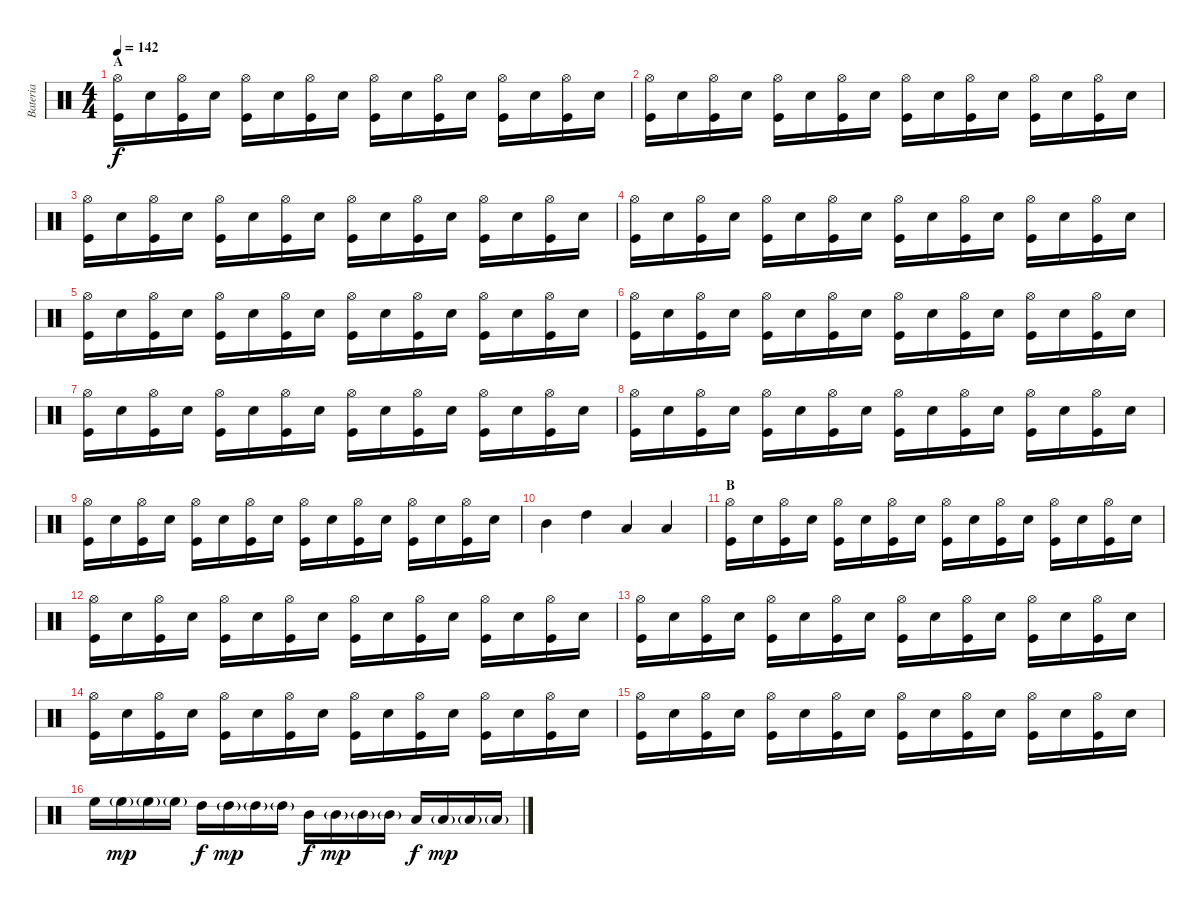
\track ("Bateria" "Bateria") {instrument percussion}
\staff {score}
\articulation defaults
\ts (4 4)
\section ("" "A")
\tempo 142
\clef neutral
\ks c
("Hi-Hat (open)" "Kick (hit)").16{dy f} "Snare (hit) 2".16 ("Hi-Hat (open)" "Kick (hit)").16 "Snare (hit) 2".16 ("Hi-Hat (open)" "Kick (hit)").16 "Snare (hit) 2".16 ("Hi-Hat (open)" "Kick (hit)").16 "Snare (hit) 2".16 ("Hi-Hat (open)" "Kick (hit)").16 "Snare (hit) 2".16 ("Hi-Hat (open)" "Kick (hit)").16 "Snare (hit) 2".16 ("Hi-Hat (open)" "Kick (hit)").16 "Snare (hit) 2".16 ("Hi-Hat (open)" "Kick (hit)").16 "Snare (hit) 2".16 |
("Hi-Hat (open)" "Kick (hit)").16 "Snare (hit) 2".16 ("Hi-Hat (open)" "Kick (hit)").16 "Snare (hit) 2".16 ("Hi-Hat (open)" "Kick (hit)").16 "Snare (hit) 2".16 ("Hi-Hat (open)" "Kick (hit)").16 "Snare (hit) 2".16 ("Hi-Hat (open)" "Kick (hit)").16 "Snare (hit) 2".16 ("Hi-Hat (open)" "Kick (hit)").16 "Snare (hit) 2".16 ("Hi-Hat (open)" "Kick (hit)").16 "Snare (hit) 2".16 ("Hi-Hat (open)" "Kick (hit)").16 "Snare (hit) 2".16 |
("Hi-Hat (open)" "Kick (hit)").16 "Snare (hit) 2".16 ("Hi-Hat (open)" "Kick (hit)").16 "Snare (hit) 2".16 ("Hi-Hat (open)" "Kick (hit)").16 "Snare (hit) 2".16 ("Hi-Hat (open)" "Kick (hit)").16 "Snare (hit) 2".16 ("Hi-Hat (open)" "Kick (hit)").16 "Snare (hit) 2".16 ("Hi-Hat (open)" "Kick (hit)").16 "Snare (hit) 2".16 ("Hi-Hat (open)" "Kick (hit)").16 "Snare (hit) 2".16 ("Hi-Hat (open)" "Kick (hit)").16 "Snare (hit) 2".16 |
("Hi-Hat (open)" "Kick (hit)").16 "Snare (hit) 2".16 ("Hi-Hat (open)" "Kick (hit)").16 "Snare (hit) 2".16 ("Hi-Hat (open)" "Kick (hit)").16 "Snare (hit) 2".16 ("Hi-Hat (open)" "Kick (hit)").16 "Snare (hit) 2".16 ("Hi-Hat (open)" "Kick (hit)").16 "Snare (hit) 2".16 ("Hi-Hat (open)" "Kick (hit)").16 "Snare (hit) 2".16 ("Hi-Hat (open)" "Kick (hit)").16 "Snare (hit) 2".16 ("Hi-Hat (open)" "Kick (hit)").16 "Snare (hit) 2".16 |
("Hi-Hat (open)" "Kick (hit)").16 "Snare (hit) 2".16 ("Hi-Hat (open)" "Kick (hit)").16 "Snare (hit) 2".16 ("Hi-Hat (open)" "Kick (hit)").16 "Snare (hit) 2".16 ("Hi-Hat (open)" "Kick (hit)").16 "Snare (hit) 2".16 ("Hi-Hat (open)" "Kick (hit)").16 "Snare (hit) 2".16 ("Hi-Hat (open)" "Kick (hit)").16 "Snare (hit) 2".16 ("Hi-Hat (open)" "Kick (hit)").16 "Snare (hit) 2".16 ("Hi-Hat (open)" "Kick (hit)").16 "Snare (hit) 2".16 |
("Hi-Hat (open)" "Kick (hit)").16 "Snare (hit) 2".16 ("Hi-Hat (open)" "Kick (hit)").16 "Snare (hit) 2".16 ("Hi-Hat (open)" "Kick (hit)").16 "Snare (hit) 2".16 ("Hi-Hat (open)" "Kick (hit)").16 "Snare (hit) 2".16 ("Hi-Hat (open)" "Kick (hit)").16 "Snare (hit) 2".16 ("Hi-Hat (open)" "Kick (hit)").16 "Snare (hit) 2".16 ("Hi-Hat (open)" "Kick (hit)").16 "Snare (hit) 2".16 ("Hi-Hat (open)" "Kick (hit)").16 "Snare (hit) 2".16 |
("Hi-Hat (open)" "Kick (hit)").16 "Snare (hit) 2".16 ("Hi-Hat (open)" "Kick (hit)").16 "Snare (hit) 2".16 ("Hi-Hat (open)" "Kick (hit)").16 "Snare (hit) 2".16 ("Hi-Hat (open)" "Kick (hit)").16 "Snare (hit) 2".16 ("Hi-Hat (open)" "Kick (hit)").16 "Snare (hit) 2".16 ("Hi-Hat (open)" "Kick (hit)").16 "Snare (hit) 2".16 ("Hi-Hat (open)" "Kick (hit)").16 "Snare (hit) 2".16 ("Hi-Hat (open)" "Kick (hit)").16 "Snare (hit) 2".16 |
("Hi-Hat (open)" "Kick (hit)").16 "Snare (hit) 2".16 ("Hi-Hat (open)" "Kick (hit)").16 "Snare (hit) 2".16 ("Hi-Hat (open)" "Kick (hit)").16 "Snare (hit) 2".16 ("Hi-Hat (open)" "Kick (hit)").16 "Snare (hit) 2".16 ("Hi-Hat (open)" "Kick (hit)").16 "Snare (hit) 2".16 ("Hi-Hat (open)" "Kick (hit)").16 "Snare (hit) 2".16 ("Hi-Hat (open)" "Kick (hit)").16 "Snare (hit) 2".16 ("Hi-Hat (open)" "Kick (hit)").16 "Snare (hit) 2".16 |
("Hi-Hat (open)" "Kick (hit)").16 "Snare (hit) 2".16 ("Hi-Hat (open)" "Kick (hit)").16 "Snare (hit) 2".16 ("Hi-Hat (open)" "Kick (hit)").16 "Snare (hit) 2".16 ("Hi-Hat (open)" "Kick (hit)").16 "Snare (hit) 2".16 ("Hi-Hat (open)" "Kick (hit)").16 "Snare (hit) 2".16 ("Hi-Hat (open)" "Kick (hit)").16 "Snare (hit) 2".16 ("Hi-Hat (open)" "Kick (hit)").16 "Snare (hit) 2".16 ("Hi-Hat (open)" "Kick (hit)").16 "Snare (hit) 2".16 |
"Mid Tom (hit)".4 "High Tom (hit)".4 "Low Tom (hit)".4 "Low Floor Tom (hit)".4 |
\section ("" "B")
("Hi-Hat (open)" "Kick (hit)").16 "Snare (hit) 2".16 ("Hi-Hat (open)" "Kick (hit)").16 "Snare (hit) 2".16 ("Hi-Hat (open)" "Kick (hit)").16 "Snare (hit) 2".16 ("Hi-Hat (open)" "Kick (hit)").16 "Snare (hit) 2".16 ("Hi-Hat (open)" "Kick (hit)").16 "Snare (hit) 2".16 ("Hi-Hat (open)" "Kick (hit)").16 "Snare (hit) 2".16 ("Hi-Hat (open)" "Kick (hit)").16 "Snare (hit) 2".16 ("Hi-Hat (open)" "Kick (hit)").16 "Snare (hit) 2".16 |
("Hi-Hat (open)" "Kick (hit)").16 "Snare (hit) 2".16 ("Hi-Hat (open)" "Kick (hit)").16 "Snare (hit) 2".16 ("Hi-Hat (open)" "Kick (hit)").16 "Snare (hit) 2".16 ("Hi-Hat (open)" "Kick (hit)").16 "Snare (hit) 2".16 ("Hi-Hat (open)" "Kick (hit)").16 "Snare (hit) 2".16 ("Hi-Hat (open)" "Kick (hit)").16 "Snare (hit) 2".16 ("Hi-Hat (open)" "Kick (hit)").16 "Snare (hit) 2".16 ("Hi-Hat (open)" "Kick (hit)").16 "Snare (hit) 2".16 |
("Hi-Hat (open)" "Kick (hit)").16 "Snare (hit) 2".16 ("Hi-Hat (open)" "Kick (hit)").16 "Snare (hit) 2".16 ("Hi-Hat (open)" "Kick (hit)").16 "Snare (hit) 2".16 ("Hi-Hat (open)" "Kick (hit)").16 "Snare (hit) 2".16 ("Hi-Hat (open)" "Kick (hit)").16 "Snare (hit) 2".16 ("Hi-Hat (open)" "Kick (hit)").16 "Snare (hit) 2".16 ("Hi-Hat (open)" "Kick (hit)").16 "Snare (hit) 2".16 ("Hi-Hat (open)" "Kick (hit)").16 "Snare (hit) 2".16 |
("Hi-Hat (open)" "Kick (hit)").16 "Snare (hit) 2".16 ("Hi-Hat (open)" "Kick (hit)").16 "Snare (hit) 2".16 ("Hi-Hat (open)" "Kick (hit)").16 "Snare (hit) 2".16 ("Hi-Hat (open)" "Kick (hit)").16 "Snare (hit) 2".16 ("Hi-Hat (open)" "Kick (hit)").16 "Snare (hit) 2".16 ("Hi-Hat (open)" "Kick (hit)").16 "Snare (hit) 2".16 ("Hi-Hat (open)" "Kick (hit)").16 "Snare (hit) 2".16 ("Hi-Hat (open)" "Kick (hit)").16 "Snare (hit) 2".16 |
("Hi-Hat (open)" "Kick (hit)").16 "Snare (hit) 2".16 ("Hi-Hat (open)" "Kick (hit)").16 "Snare (hit) 2".16 ("Hi-Hat (open)" "Kick (hit)").16 "Snare (hit) 2".16 ("Hi-Hat (open)" "Kick (hit)").16 "Snare (hit) 2".16 ("Hi-Hat (open)" "Kick (hit)").16 "Snare (hit) 2".16 ("Hi-Hat (open)" "Kick (hit)").16 "Snare (hit) 2".16 ("Hi-Hat (open)" "Kick (hit)").16 "Snare (hit) 2".16 ("Hi-Hat (open)" "Kick (hit)").16 "Snare (hit) 2".16 |
"High Floor Tom (hit)".16 "High Floor Tom (hit)"{g}.16{dy mp} "High Floor Tom (hit)"{g}.16 "High Floor Tom (hit)"{g}.16 "High Tom (hit)".16{dy f} "High Tom (hit)"{g}.16{dy mp} "High Tom (hit)"{g}.16 "High Tom (hit)"{g}.16 "Mid Tom (hit)".16{dy f} "Mid Tom (hit)"{g}.16{dy mp} "Mid Tom (hit)"{g}.16 "Mid Tom (hit)"{g}.16 "Low Tom (hit)".16{dy f} "Low Tom (hit)"{g}.16{dy mp} "Low Tom (hit)"{g}.16 "Low Tom (hit)"{g}.16
